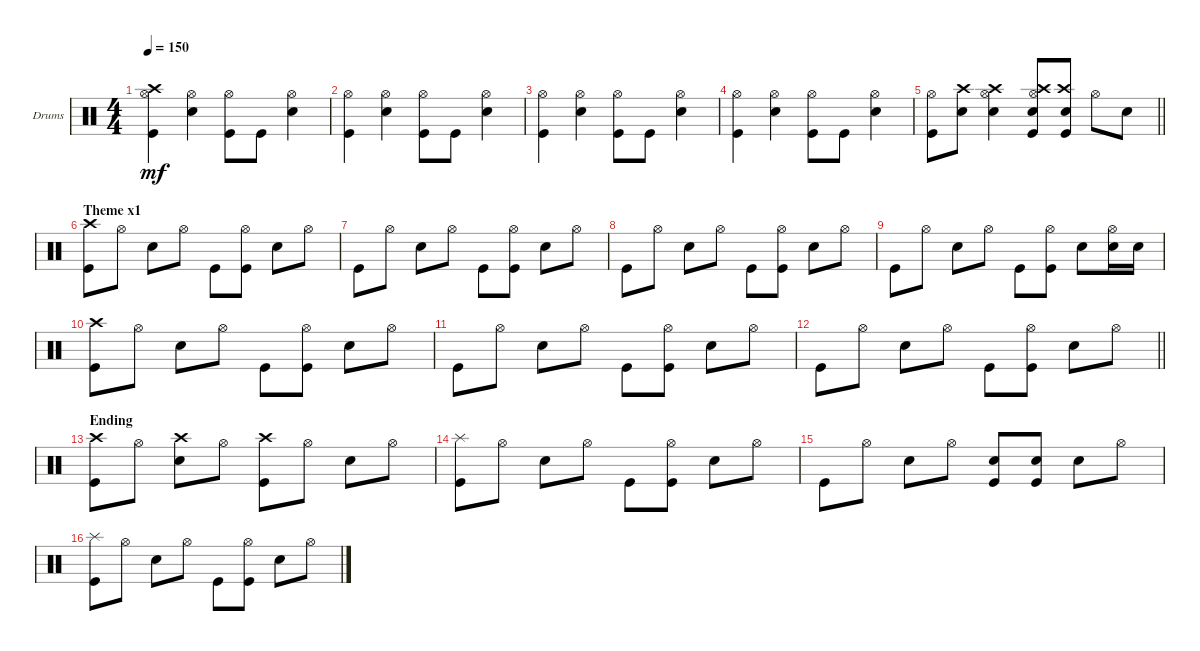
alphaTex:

\bracketExtendMode groupsimilarinstruments
\firstSystemTrackNameOrientation horizontal
\otherSystemsTrackNameOrientation horizontal
\track ("Percussion" "Drums") {instrument percussion}
\staff {score}
\articulation defaults
\ts (4 4)
\scale
0.369046
\tempo 150
\accidentals auto
\clef neutral
\ottava regular
\simile none
\ks c
("Kick (hit)" "Hi-Hat (open)" "Crash high (hit)").4{dy mf} ("Hi-Hat (open)" "Snare (hit) 2").4 ("Kick (hit)" "Hi-Hat (open)").8 "Kick (hit)".8 ("Snare (hit) 2" "Hi-Hat (open)").4 |
\scale
0.28024 ("Kick (hit)" "Hi-Hat (open)").4 ("Snare (hit) 2" "Hi-Hat (open)").4 ("Kick (hit)" "Hi-Hat (open)").8 "Kick (hit)".8 ("Hi-Hat (open)" "Snare (hit) 2").4 |
\scale
0.351019 ("Hi-Hat (open)" "Kick (hit)").4 ("Hi-Hat (open)" "Snare (hit) 2").4 ("Hi-Hat (open)" "Kick (hit)").8 "Kick (hit)".8 ("Hi-Hat (open)" "Snare (hit) 2").4 |
("Hi-Hat (open)" "Kick (hit)").4 ("Hi-Hat (open)" "Snare (hit) 2").4 ("Hi-Hat (open)" "Kick (hit)").8 "Kick (hit)".8 ("Hi-Hat (open)" "Snare (hit) 2").4 |
\barLineRight lightlight
("Kick (hit)" "Hi-Hat (open)").8 ("Snare (hit) 2" "Crash high (hit)").8 ("Crash high (hit)" "Hi-Hat (open)" "Snare (hit) 2").4 ("Crash high (hit)" "Snare (hit) 2" "Kick (hit)" "Hi-Hat (open)").8 ("Snare (hit) 2" "Kick (hit)" "Crash high (hit)").8 "Hi-Hat (open)".8 "Snare (hit) 2".8 |
\section ("" "Theme x1")
("Crash high (hit)" "Kick (hit)").8 "Hi-Hat (open)".8 "Snare (hit) 2".8 "Hi-Hat (open)".8 "Kick (hit)".8 ("Hi-Hat (open)" "Kick (hit)").8 "Snare (hit) 2".8 "Hi-Hat (open)".8 |
"Kick (hit)".8 "Hi-Hat (open)".8 "Snare (hit) 2".8 "Hi-Hat (open)".8 "Kick (hit)".8 ("Hi-Hat (open)" "Kick (hit)").8 "Snare (hit) 2".8 "Hi-Hat (open)".8 |
"Kick (hit)".8 "Hi-Hat (open)".8 "Snare (hit) 2".8 "Hi-Hat (open)".8 "Kick (hit)".8 ("Hi-Hat (open)" "Kick (hit)").8 "Snare (hit) 2".8 "Hi-Hat (open)".8 |
"Kick (hit)".8 "Hi-Hat (open)".8 "Snare (hit) 2".8 "Hi-Hat (open)".8 "Kick (hit)".8 ("Hi-Hat (open)" "Kick (hit)").8 "Snare (hit) 2".8 ("Snare (hit) 2" "Hi-Hat (open)").16 "Snare (hit) 2".16 |
("Crash high (hit)" "Kick (hit)").8 "Hi-Hat (open)".8 "Snare (hit) 2".8 "Hi-Hat (open)".8 "Kick (hit)".8 ("Hi-Hat (open)" "Kick (hit)").8 "Snare (hit) 2".8 "Hi-Hat (open)".8 |
"Kick (hit)".8 "Hi-Hat (open)".8 "Snare (hit) 2".8 "Hi-Hat (open)".8 "Kick (hit)".8 ("Hi-Hat (open)" "Kick (hit)").8 "Snare (hit) 2".8 "Hi-Hat (open)".8 |
\barLineRight lightlight "Kick (hit)".8 "Hi-Hat (open)".8 "Snare (hit) 2".8 "Hi-Hat (open)".8 "Kick (hit)".8
("Hi-Hat (open)" "Kick (hit)").8 "Snare (hit) 2".8 "Hi-Hat (open)".8 |
\section ("" "Ending")
("Crash high (hit)" "Kick (hit)").8 "Hi-Hat (open)".8 ("Crash high (hit)" "Snare (hit) 2").8 "Hi-Hat (open)".8 ("Kick (hit)" "Crash high (hit)").8 "Hi-Hat (open)".8 "Snare (hit) 2".8 "Hi-Hat (open)".8 |
("Splash (hit)" "Kick (hit)").8 "Hi-Hat (open)".8 "Snare (hit) 2".8 "Hi-Hat (open)".8 "Kick (hit)".8 ("Hi-Hat (open)" "Kick (hit)").8 "Snare (hit) 2".8 "Hi-Hat (open)".8 |
"Kick (hit)".8 "Hi-Hat (open)".8 "Snare (hit) 2".8 "Hi-Hat (open)".8 ("Snare (hit) 2" "Kick (hit)").8 ("Snare (hit) 2" "Kick (hit)").8 "Snare (hit) 2".8 "Hi-Hat (open)".8 |
("Splash (hit)" "Kick (hit)").8 "Hi-Hat (open)".8 "Snare (hit) 2".8 "Hi-Hat (open)".8 "Kick (hit)".8 ("Hi-Hat (open)" "Kick (hit)").8 "Snare (hit) 2".8 "Hi-Hat (open)".8
